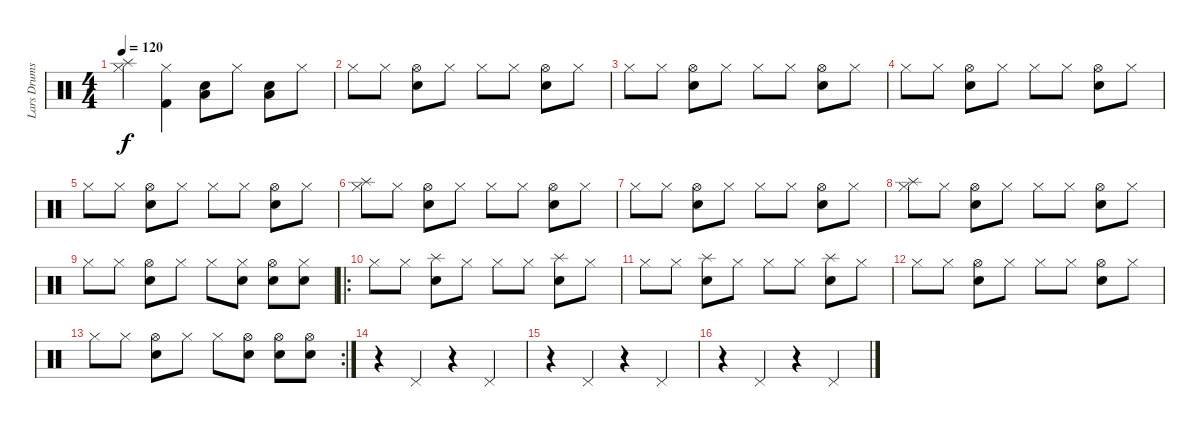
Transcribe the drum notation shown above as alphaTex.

\track ("Lars Drums" "Lars Drums") {instrument percussion}
\staff {score}
\articulation defaults
\ts (4 4)
\tempo 120
\clef neutral
\ks c
("Splash (hit)" "Hi-Hat (closed)").4{dy f} ("Hi-Hat (closed)" "Kick (hit) 2").4 ("Snare (hit) 2" "Low Floor Tom (hit)").8 "Hi-Hat (closed)".8 ("Snare (hit) 2" "Low Floor Tom (hit)").8 "Hi-Hat (closed)".8 |
"Hi-Hat (closed)".8 "Hi-Hat (closed)".8 ("Snare (hit) 2" "Hi-Hat (open)").8 "Hi-Hat (closed)".8 "Hi-Hat (closed)".8 "Hi-Hat (closed)".8 ("Snare (hit) 2" "Hi-Hat (open)").8 "Hi-Hat (closed)".8 |
"Hi-Hat (closed)".8 "Hi-Hat (closed)".8 ("Snare (hit) 2" "Hi-Hat (open)").8 "Hi-Hat (closed)".8 "Hi-Hat (closed)".8 "Hi-Hat (closed)".8 ("Snare (hit) 2" "Hi-Hat (open)").8 "Hi-Hat (closed)".8 |
"Hi-Hat (closed)".8 "Hi-Hat (closed)".8 ("Snare (hit) 2" "Hi-Hat (open)").8 "Hi-Hat (closed)".8 "Hi-Hat (closed)".8 "Hi-Hat (closed)".8 ("Snare (hit) 2" "Hi-Hat (open)").8 "Hi-Hat (closed)".8 |
"Hi-Hat (closed)".8 "Hi-Hat (closed)".8 ("Snare (hit) 2" "Hi-Hat (open)").8 "Hi-Hat (closed)".8 "Hi-Hat (closed)".8 "Hi-Hat (closed)".8 ("Snare (hit) 2" "Hi-Hat (open)").8 "Hi-Hat (closed)".8 |
("Splash (hit)" "Hi-Hat (closed)").8 "Hi-Hat (closed)".8 ("Snare (hit) 2" "Hi-Hat (open)").8 "Hi-Hat (closed)".8 "Hi-Hat (closed)".8 "Hi-Hat (closed)".8 ("Snare (hit) 2" "Hi-Hat (open)").8 "Hi-Hat (closed)".8 |
"Hi-Hat (closed)".8 "Hi-Hat (closed)".8 ("Snare (hit) 2" "Hi-Hat (open)").8 "Hi-Hat (closed)".8 "Hi-Hat (closed)".8 "Hi-Hat (closed)".8 ("Snare (hit) 2" "Hi-Hat (open)").8 "Hi-Hat (closed)".8 |
("Splash (hit)" "Hi-Hat (closed)").8 "Hi-Hat (closed)".8 ("Snare (hit) 2" "Hi-Hat (open)").8 "Hi-Hat (closed)".8 "Hi-Hat (closed)".8 "Hi-Hat (closed)".8 ("Snare (hit) 2" "Hi-Hat (open)").8 "Hi-Hat (closed)".8 |
"Hi-Hat (closed)".8 "Hi-Hat (closed)".8 ("Snare (hit) 2" "Hi-Hat (open)").8 "Hi-Hat (closed)".8 "Hi-Hat (closed)".8 ("Snare (hit) 2" "Hi-Hat (closed)").8 ("Snare (hit) 2" "Hi-Hat (open)").8 ("Snare (hit) 2" "Hi-Hat (closed)").8 |
\ro "Hi-Hat (closed)".8 "Hi-Hat (closed)".8
("Splash (hit)" "Snare (hit) 2").8 "Hi-Hat (closed)".8 "Hi-Hat (closed)".8 "Hi-Hat (closed)".8 ("Splash (hit)" "Snare (hit) 2").8 "Hi-Hat (closed)".8 |
"Hi-Hat (closed)".8 "Hi-Hat (closed)".8 ("Splash (hit)" "Snare (hit) 2").8 "Hi-Hat (closed)".8 "Hi-Hat (closed)".8 "Hi-Hat (closed)".8 ("Splash (hit)" "Snare (hit) 2").8 "Hi-Hat (closed)".8 |
"Hi-Hat (closed)".8 "Hi-Hat (closed)".8 ("Hi-Hat (open)" "Snare (hit) 2").8 "Hi-Hat (closed)".8 "Hi-Hat (closed)".8 "Hi-Hat (closed)".8 ("Hi-Hat (open)" "Snare (hit) 2").8 "Hi-Hat (closed)".8 |
\rc 2 "Hi-Hat (closed)".8 "Hi-Hat (closed)".8
("Hi-Hat (open)" "Snare (hit) 2").8 "Hi-Hat (closed)".8 "Hi-Hat (closed)".8 ("Snare (hit) 2" "Hi-Hat (open)").8 ("Snare (hit) 2" "Hi-Hat (open)").8 ("Snare (hit) 2" "Hi-Hat (open)").8 |
r.4 "Pedal Hi-Hat (hit)".4 r.4 "Pedal Hi-Hat (hit)".4 |
r.4 "Pedal Hi-Hat (hit)".4 r.4 "Pedal Hi-Hat (hit)".4 |
r.4 "Pedal Hi-Hat (hit)".4 r.4 "Pedal Hi-Hat (hit)".4
